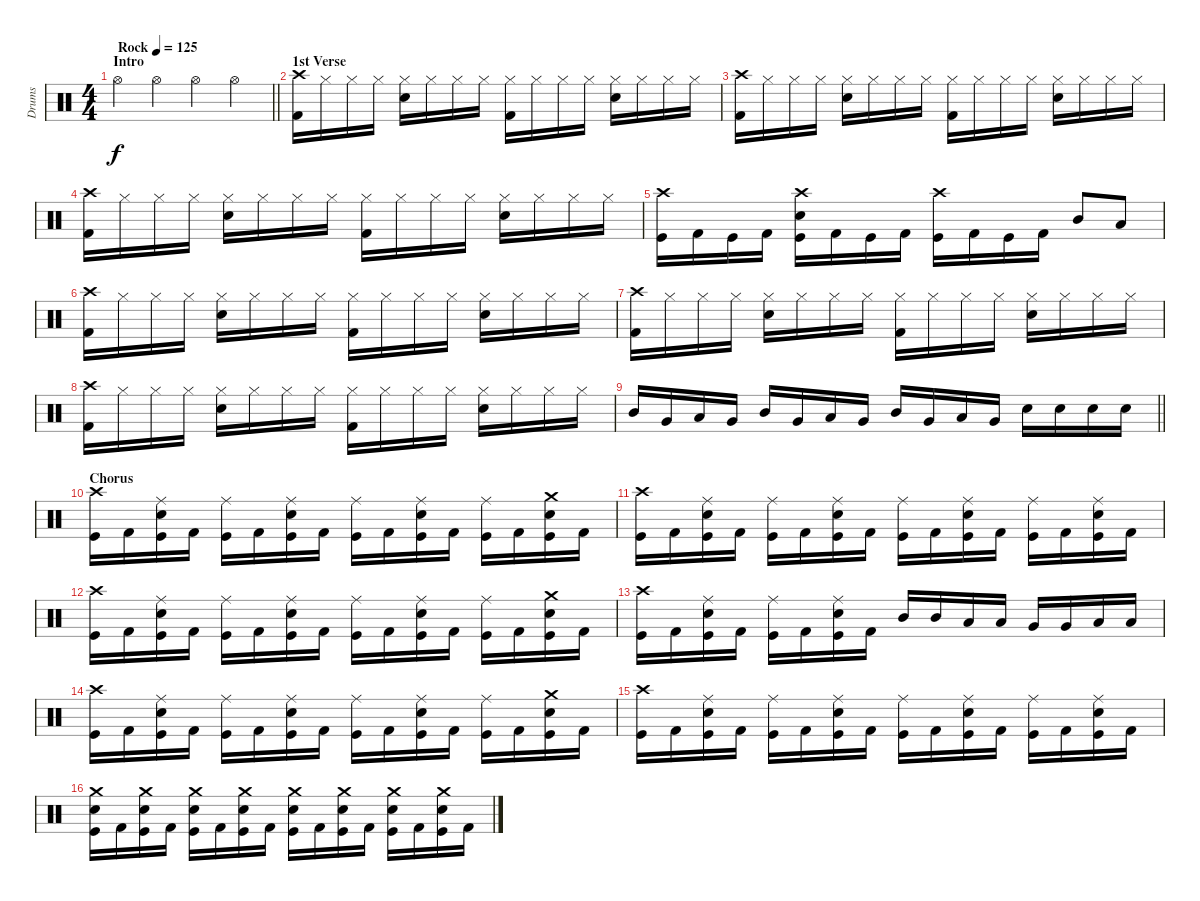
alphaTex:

\track ("Drums" "Drums") {instrument percussion}
\staff {score}
\articulation defaults
\ts (4 4)
\section ("" "Intro")
\tempo (125 "Rock")
\clef neutral
\barLineRight lightlight
\ks c "Hi-Hat (open)".4{dy f} "Hi-Hat (open)".4 "Hi-Hat (open)".4 "Hi-Hat (open)".4
|
\section ("" "1st Verse")
("Crash high (hit)" "Kick (hit) 2").16 "Hi-Hat (closed)".16 "Hi-Hat (closed)".16 "Hi-Hat (closed)".16 ("Hi-Hat (closed)" "Electric Snare (hit)").16 "Hi-Hat (closed)".16 "Hi-Hat (closed)".16 "Hi-Hat (closed)".16 ("Hi-Hat (closed)" "Kick (hit) 2").16 "Hi-Hat (closed)".16 "Hi-Hat (closed)".16 "Hi-Hat (closed)".16 ("Hi-Hat (closed)" "Electric Snare (hit)").16 "Hi-Hat (closed)".16 "Hi-Hat (closed)".16 "Hi-Hat (closed)".16 |
("Crash high (hit)" "Kick (hit) 2").16 "Hi-Hat (closed)".16 "Hi-Hat (closed)".16 "Hi-Hat (closed)".16 ("Hi-Hat (closed)" "Electric Snare (hit)").16 "Hi-Hat (closed)".16 "Hi-Hat (closed)".16 "Hi-Hat (closed)".16 ("Hi-Hat (closed)" "Kick (hit) 2").16 "Hi-Hat (closed)".16 "Hi-Hat (closed)".16 "Hi-Hat (closed)".16 ("Hi-Hat (closed)" "Electric Snare (hit)").16 "Hi-Hat (closed)".16 "Hi-Hat (closed)".16 "Hi-Hat (closed)".16 |
("Crash high (hit)" "Kick (hit) 2").16 "Hi-Hat (closed)".16 "Hi-Hat (closed)".16 "Hi-Hat (closed)".16 ("Hi-Hat (closed)" "Electric Snare (hit)").16 "Hi-Hat (closed)".16 "Hi-Hat (closed)".16 "Hi-Hat (closed)".16 ("Hi-Hat (closed)" "Kick (hit) 2").16 "Hi-Hat (closed)".16 "Hi-Hat (closed)".16 "Hi-Hat (closed)".16 ("Hi-Hat (closed)" "Electric Snare (hit)").16 "Hi-Hat (closed)".16 "Hi-Hat (closed)".16 "Hi-Hat (closed)".16 |
("Crash high (hit)" "Kick (hit)").16 "Kick (hit) 2".16 "Kick (hit)".16 "Kick (hit) 2".16 ("Crash high (hit)" "Electric Snare (hit)" "Kick (hit)").16 "Kick (hit) 2".16 "Kick (hit)".16 "Kick (hit) 2".16 ("Crash high (hit)" "Kick (hit)").16 "Kick (hit) 2".16 "Kick (hit)".16 "Kick (hit) 2".16 "Mid Tom (hit)".8 "Low Tom (hit)".8 |
("Crash high (hit)" "Kick (hit) 2").16 "Hi-Hat (closed)".16 "Hi-Hat (closed)".16 "Hi-Hat (closed)".16 ("Hi-Hat (closed)" "Electric Snare (hit)").16 "Hi-Hat (closed)".16 "Hi-Hat (closed)".16 "Hi-Hat (closed)".16 ("Hi-Hat (closed)" "Kick (hit) 2").16 "Hi-Hat (closed)".16 "Hi-Hat (closed)".16 "Hi-Hat (closed)".16 ("Hi-Hat (closed)" "Electric Snare (hit)").16 "Hi-Hat (closed)".16 "Hi-Hat (closed)".16 "Hi-Hat (closed)".16 |
("Crash high (hit)" "Kick (hit) 2").16 "Hi-Hat (closed)".16 "Hi-Hat (closed)".16 "Hi-Hat (closed)".16 ("Hi-Hat (closed)" "Electric Snare (hit)").16 "Hi-Hat (closed)".16 "Hi-Hat (closed)".16 "Hi-Hat (closed)".16 ("Hi-Hat (closed)" "Kick (hit) 2").16 "Hi-Hat (closed)".16 "Hi-Hat (closed)".16 "Hi-Hat (closed)".16 ("Hi-Hat (closed)" "Electric Snare (hit)").16 "Hi-Hat (closed)".16 "Hi-Hat (closed)".16 "Hi-Hat (closed)".16 |
("Crash high (hit)" "Kick (hit) 2").16 "Hi-Hat (closed)".16 "Hi-Hat (closed)".16 "Hi-Hat (closed)".16 ("Hi-Hat (closed)" "Electric Snare (hit)").16 "Hi-Hat (closed)".16 "Hi-Hat (closed)".16 "Hi-Hat (closed)".16 ("Hi-Hat (closed)" "Kick (hit) 2").16 "Hi-Hat (closed)".16 "Hi-Hat (closed)".16 "Hi-Hat (closed)".16 ("Hi-Hat (closed)" "Electric Snare (hit)").16 "Hi-Hat (closed)".16 "Hi-Hat (closed)".16 "Hi-Hat (closed)".16 |
\barLineRight lightlight "Mid Tom (hit)".16 "Very Low Tom (hit)".16 "Low Tom (hit)".16 "Very Low Tom (hit)".16 "Mid Tom (hit)".16 "Very Low Tom (hit)".16 "Low Tom (hit)".16 "Very Low Tom (hit)".16 "Mid Tom (hit)".16 "Very Low Tom (hit)".16 "Low Tom (hit)".16 "Very Low Tom (hit)".16 "Electric Snare (hit)".16 "Electric Snare (hit)".16 "Electric Snare (hit)".16 "Electric Snare (hit)".16
|
\section ("" "Chorus")
("Crash high (hit)" "Kick (hit)").16 "Kick (hit) 2".16 ("Ride (middle)" "Electric Snare (hit)" "Kick (hit)").16 "Kick (hit) 2".16 ("Ride (middle)" "Kick (hit)").16 "Kick (hit) 2".16 ("Ride (middle)" "Electric Snare (hit)" "Kick (hit)").16 "Kick (hit) 2".16 ("Ride (middle)" "Kick (hit)").16 "Kick (hit) 2".16 ("Ride (middle)" "Electric Snare (hit)" "Kick (hit)").16 "Kick (hit) 2".16 ("Ride (middle)" "Kick (hit)").16 "Kick (hit) 2".16 ("Crash medium (hit)" "Electric Snare (hit)" "Kick (hit)").16 "Kick (hit) 2".16 |
("Crash high (hit)" "Kick (hit)").16 "Kick (hit) 2".16 ("Ride (middle)" "Electric Snare (hit)" "Kick (hit)").16 "Kick (hit) 2".16 ("Ride (middle)" "Kick (hit)").16 "Kick (hit) 2".16 ("Ride (middle)" "Electric Snare (hit)" "Kick (hit)").16 "Kick (hit) 2".16 ("Ride (middle)" "Kick (hit)").16 "Kick (hit) 2".16 ("Ride (middle)" "Electric Snare (hit)" "Kick (hit)").16 "Kick (hit) 2".16 ("Ride (middle)" "Kick (hit)").16 "Kick (hit) 2".16 ("Ride (middle)" "Electric Snare (hit)" "Kick (hit)").16 "Kick (hit) 2".16 |
("Crash high (hit)" "Kick (hit)").16 "Kick (hit) 2".16 ("Ride (middle)" "Electric Snare (hit)" "Kick (hit)").16 "Kick (hit) 2".16 ("Ride (middle)" "Kick (hit)").16 "Kick (hit) 2".16 ("Ride (middle)" "Electric Snare (hit)" "Kick (hit)").16 "Kick (hit) 2".16 ("Ride (middle)" "Kick (hit)").16 "Kick (hit) 2".16 ("Ride (middle)" "Electric Snare (hit)" "Kick (hit)").16 "Kick (hit) 2".16 ("Ride (middle)" "Kick (hit)").16 "Kick (hit) 2".16 ("Crash medium (hit)" "Electric Snare (hit)" "Kick (hit)").16 "Kick (hit) 2".16 |
("Crash high (hit)" "Kick (hit)").16 "Kick (hit) 2".16 ("Ride (middle)" "Electric Snare (hit)" "Kick (hit)").16 "Kick (hit) 2".16 ("Ride (middle)" "Kick (hit)").16 "Kick (hit) 2".16 ("Ride (middle)" "Electric Snare (hit)" "Kick (hit)").16 "Kick (hit) 2".16 "Mid Tom (hit)".16 "Mid Tom (hit)".16 "Low Tom (hit)".16 "Low Tom (hit)".16 "Very Low Tom (hit)".16 "Very Low Tom (hit)".16 "Low Floor Tom (hit)".16 "Low Floor Tom (hit)".16 |
("Crash high (hit)" "Kick (hit)").16 "Kick (hit) 2".16 ("Ride (middle)" "Electric Snare (hit)" "Kick (hit)").16 "Kick (hit) 2".16 ("Ride (middle)" "Kick (hit)").16 "Kick (hit) 2".16 ("Ride (middle)" "Electric Snare (hit)" "Kick (hit)").16 "Kick (hit) 2".16 ("Ride (middle)" "Kick (hit)").16 "Kick (hit) 2".16 ("Ride (middle)" "Electric Snare (hit)" "Kick (hit)").16 "Kick (hit) 2".16 ("Ride (middle)" "Kick (hit)").16 "Kick (hit) 2".16 ("Crash medium (hit)" "Electric Snare (hit)" "Kick (hit)").16 "Kick (hit) 2".16 |
("Crash high (hit)" "Kick (hit)").16 "Kick (hit) 2".16 ("Ride (middle)" "Electric Snare (hit)" "Kick (hit)").16 "Kick (hit) 2".16 ("Ride (middle)" "Kick (hit)").16 "Kick (hit) 2".16 ("Ride (middle)" "Electric Snare (hit)" "Kick (hit)").16 "Kick (hit) 2".16 ("Ride (middle)" "Kick (hit)").16 "Kick (hit) 2".16 ("Ride (middle)" "Electric Snare (hit)" "Kick (hit)").16 "Kick (hit) 2".16 ("Ride (middle)" "Kick (hit)").16 "Kick (hit) 2".16 ("Ride (middle)" "Electric Snare (hit)" "Kick (hit)").16 "Kick (hit) 2".16 |
("Crash medium (hit)" "Electric Snare (hit)" "Kick (hit)").16 "Kick (hit) 2".16 ("Crash medium (hit)" "Electric Snare (hit)" "Kick (hit)").16 "Kick (hit) 2".16 ("Crash medium (hit)" "Electric Snare (hit)" "Kick (hit)").16 "Kick (hit) 2".16 ("Crash medium (hit)" "Electric Snare (hit)" "Kick (hit)").16 "Kick (hit) 2".16 ("Crash medium (hit)" "Electric Snare (hit)" "Kick (hit)").16 "Kick (hit) 2".16 ("Crash medium (hit)" "Electric Snare (hit)" "Kick (hit)").16 "Kick (hit) 2".16 ("Crash medium (hit)" "Electric Snare (hit)" "Kick (hit)").16 "Kick (hit) 2".16 ("Crash medium (hit)" "Electric Snare (hit)" "Kick (hit)").16 "Kick (hit) 2".16
